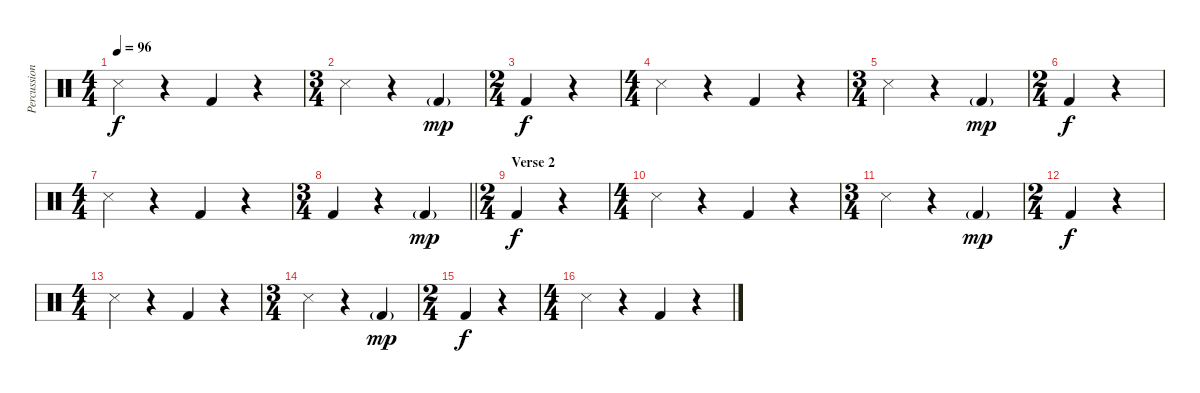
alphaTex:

\track ("Percussion" "Percussion") {instrument percussion}
\staff {score}
\articulation defaults
\ts (4 4)
\tempo 96
\clef neutral
\ks c "Snare (side stick) 3".4{dy f}
r.4 "Kick (hit) 2".4 r.4 |
\ts (3 4)
"Snare (side stick) 3".4 r.4 "Kick (hit) 2"{g}.4{dy mp} |
\ts (2 4)
"Kick (hit) 2".4{dy f} r.4 |
\ts (4 4)
"Snare (side stick) 3".4 r.4 "Kick (hit) 2".4 r.4 |
\ts (3 4)
"Snare (side stick) 3".4 r.4 "Kick (hit) 2"{g}.4{dy mp} |
\ts (2 4)
"Kick (hit) 2".4{dy f} r.4 |
\ts (4 4)
"Snare (side stick) 3".4 r.4 "Kick (hit) 2".4 r.4 |
\ts (3 4)
\barLineRight lightlight "Kick (hit) 2".4
r.4 "Kick (hit) 2"{g}.4{dy mp} |
\ts (2 4)
\section ("" "Verse 2")
"Kick (hit) 2".4{dy f} r.4 |
\ts (4 4)
"Snare (side stick) 3".4 r.4 "Kick (hit) 2".4 r.4 |
\ts (3 4)
"Snare (side stick) 3".4 r.4 "Kick (hit) 2"{g}.4{dy mp} |
\ts (2 4)
"Kick (hit) 2".4{dy f} r.4 |
\ts (4 4)
"Snare (side stick) 3".4 r.4 "Kick (hit) 2".4 r.4 |
\ts (3 4)
"Snare (side stick) 3".4 r.4 "Kick (hit) 2"{g}.4{dy mp} |
\ts (2 4)
"Kick (hit) 2".4{dy f} r.4 |
\ts (4 4)
"Snare (side stick) 3".4 r.4 "Kick (hit) 2".4 r.4
